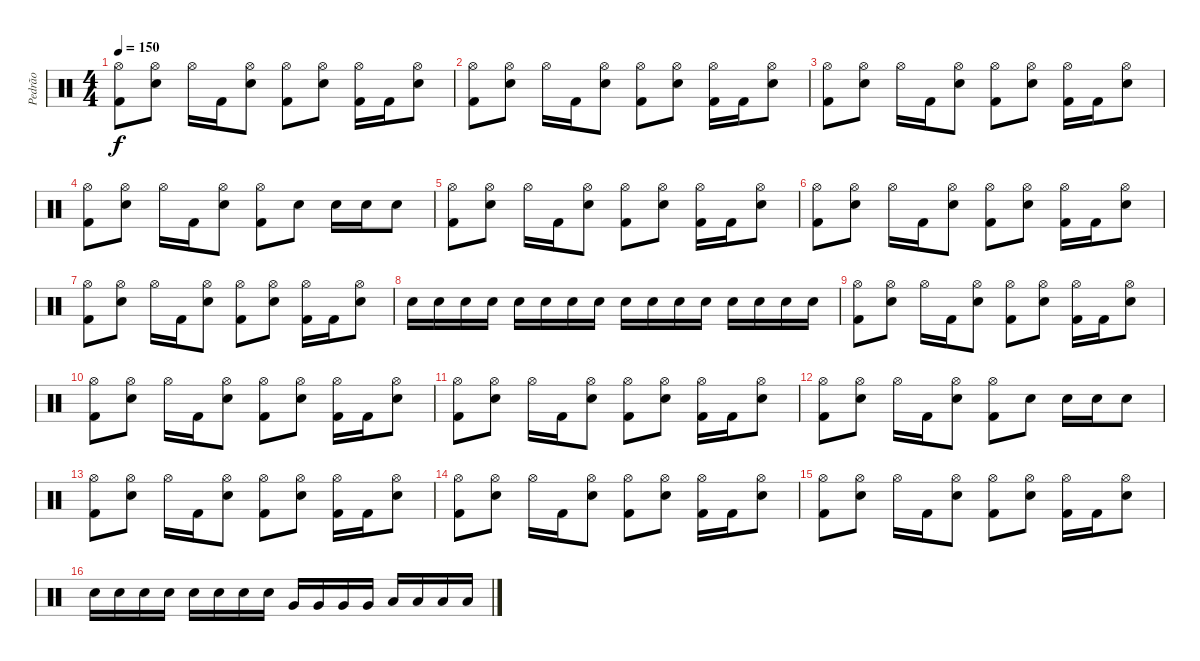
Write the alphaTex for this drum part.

\track ("Pedrão" "Pedrão") {instrument percussion}
\staff {score}
\articulation defaults
\ts (4 4)
\tempo 150
\clef neutral
\ks c
("Hi-Hat (open)" "Kick (hit) 2").8{dy f} ("Hi-Hat (open)" "Snare (hit) 2").8 "Hi-Hat (open)".16 "Kick (hit) 2".16 ("Hi-Hat (open)" "Snare (hit) 2").8 ("Hi-Hat (open)" "Kick (hit) 2").8 ("Hi-Hat (open)" "Snare (hit) 2").8 ("Hi-Hat (open)" "Kick (hit) 2").16 "Kick (hit) 2".16 ("Hi-Hat (open)" "Snare (hit) 2").8 |
("Hi-Hat (open)" "Kick (hit) 2").8 ("Hi-Hat (open)" "Snare (hit) 2").8 "Hi-Hat (open)".16 "Kick (hit) 2".16 ("Hi-Hat (open)" "Snare (hit) 2").8 ("Hi-Hat (open)" "Kick (hit) 2").8 ("Hi-Hat (open)" "Snare (hit) 2").8 ("Hi-Hat (open)" "Kick (hit) 2").16 "Kick (hit) 2".16 ("Hi-Hat (open)" "Snare (hit) 2").8 |
("Hi-Hat (open)" "Kick (hit) 2").8 ("Hi-Hat (open)" "Snare (hit) 2").8 "Hi-Hat (open)".16 "Kick (hit) 2".16 ("Hi-Hat (open)" "Snare (hit) 2").8 ("Hi-Hat (open)" "Kick (hit) 2").8 ("Hi-Hat (open)" "Snare (hit) 2").8 ("Hi-Hat (open)" "Kick (hit) 2").16 "Kick (hit) 2".16 ("Hi-Hat (open)" "Snare (hit) 2").8 |
("Hi-Hat (open)" "Kick (hit) 2").8 ("Hi-Hat (open)" "Snare (hit) 2").8 "Hi-Hat (open)".16 "Kick (hit) 2".16 ("Hi-Hat (open)" "Snare (hit) 2").8 ("Hi-Hat (open)" "Kick (hit) 2").8 "Snare (hit) 2".8 "Snare (hit) 2".16 "Snare (hit) 2".16 "Snare (hit) 2".8 |
("Hi-Hat (open)" "Kick (hit) 2").8 ("Hi-Hat (open)" "Snare (hit) 2").8 "Hi-Hat (open)".16 "Kick (hit) 2".16 ("Hi-Hat (open)" "Snare (hit) 2").8 ("Hi-Hat (open)" "Kick (hit) 2").8 ("Hi-Hat (open)" "Snare (hit) 2").8 ("Hi-Hat (open)" "Kick (hit) 2").16 "Kick (hit) 2".16 ("Hi-Hat (open)" "Snare (hit) 2").8 |
("Hi-Hat (open)" "Kick (hit) 2").8 ("Hi-Hat (open)" "Snare (hit) 2").8 "Hi-Hat (open)".16 "Kick (hit) 2".16 ("Hi-Hat (open)" "Snare (hit) 2").8 ("Hi-Hat (open)" "Kick (hit) 2").8 ("Hi-Hat (open)" "Snare (hit) 2").8 ("Hi-Hat (open)" "Kick (hit) 2").16 "Kick (hit) 2".16 ("Hi-Hat (open)" "Snare (hit) 2").8 |
("Hi-Hat (open)" "Kick (hit) 2").8 ("Hi-Hat (open)" "Snare (hit) 2").8 "Hi-Hat (open)".16 "Kick (hit) 2".16 ("Hi-Hat (open)" "Snare (hit) 2").8 ("Hi-Hat (open)" "Kick (hit) 2").8 ("Hi-Hat (open)" "Snare (hit) 2").8 ("Hi-Hat (open)" "Kick (hit) 2").16 "Kick (hit) 2".16 ("Hi-Hat (open)" "Snare (hit) 2").8 |
"Snare (hit) 2".16 "Snare (hit) 2".16 "Snare (hit) 2".16 "Snare (hit) 2".16 "Snare (hit) 2".16 "Snare (hit) 2".16 "Snare (hit) 2".16 "Snare (hit) 2".16 "Snare (hit) 2".16 "Snare (hit) 2".16 "Snare (hit) 2".16 "Snare (hit) 2".16 "Snare (hit) 2".16 "Snare (hit) 2".16 "Snare (hit) 2".16 "Snare (hit) 2".16 |
("Hi-Hat (open)" "Kick (hit) 2").8 ("Hi-Hat (open)" "Snare (hit) 2").8 "Hi-Hat (open)".16 "Kick (hit) 2".16 ("Hi-Hat (open)" "Snare (hit) 2").8 ("Hi-Hat (open)" "Kick (hit) 2").8 ("Hi-Hat (open)" "Snare (hit) 2").8 ("Hi-Hat (open)" "Kick (hit) 2").16 "Kick (hit) 2".16 ("Hi-Hat (open)" "Snare (hit) 2").8 |
("Hi-Hat (open)" "Kick (hit) 2").8 ("Hi-Hat (open)" "Snare (hit) 2").8 "Hi-Hat (open)".16 "Kick (hit) 2".16 ("Hi-Hat (open)" "Snare (hit) 2").8 ("Hi-Hat (open)" "Kick (hit) 2").8 ("Hi-Hat (open)" "Snare (hit) 2").8 ("Hi-Hat (open)" "Kick (hit) 2").16 "Kick (hit) 2".16 ("Hi-Hat (open)" "Snare (hit) 2").8 |
("Hi-Hat (open)" "Kick (hit) 2").8 ("Hi-Hat (open)" "Snare (hit) 2").8 "Hi-Hat (open)".16 "Kick (hit) 2".16 ("Hi-Hat (open)" "Snare (hit) 2").8 ("Hi-Hat (open)" "Kick (hit) 2").8 ("Hi-Hat (open)" "Snare (hit) 2").8 ("Hi-Hat (open)" "Kick (hit) 2").16 "Kick (hit) 2".16 ("Hi-Hat (open)" "Snare (hit) 2").8 |
("Hi-Hat (open)" "Kick (hit) 2").8 ("Hi-Hat (open)" "Snare (hit) 2").8 "Hi-Hat (open)".16 "Kick (hit) 2".16 ("Hi-Hat (open)" "Snare (hit) 2").8 ("Hi-Hat (open)" "Kick (hit) 2").8 "Snare (hit) 2".8 "Snare (hit) 2".16 "Snare (hit) 2".16 "Snare (hit) 2".8 |
("Hi-Hat (open)" "Kick (hit) 2").8 ("Hi-Hat (open)" "Snare (hit) 2").8 "Hi-Hat (open)".16 "Kick (hit) 2".16 ("Hi-Hat (open)" "Snare (hit) 2").8 ("Hi-Hat (open)" "Kick (hit) 2").8 ("Hi-Hat (open)" "Snare (hit) 2").8 ("Hi-Hat (open)" "Kick (hit) 2").16 "Kick (hit) 2".16 ("Hi-Hat (open)" "Snare (hit) 2").8 |
("Hi-Hat (open)" "Kick (hit) 2").8 ("Hi-Hat (open)" "Snare (hit) 2").8 "Hi-Hat (open)".16 "Kick (hit) 2".16 ("Hi-Hat (open)" "Snare (hit) 2").8 ("Hi-Hat (open)" "Kick (hit) 2").8 ("Hi-Hat (open)" "Snare (hit) 2").8 ("Hi-Hat (open)" "Kick (hit) 2").16 "Kick (hit) 2".16 ("Hi-Hat (open)" "Snare (hit) 2").8 |
("Hi-Hat (open)" "Kick (hit) 2").8 ("Hi-Hat (open)" "Snare (hit) 2").8 "Hi-Hat (open)".16 "Kick (hit) 2".16 ("Hi-Hat (open)" "Snare (hit) 2").8 ("Hi-Hat (open)" "Kick (hit) 2").8 ("Hi-Hat (open)" "Snare (hit) 2").8 ("Hi-Hat (open)" "Kick (hit) 2").16 "Kick (hit) 2".16 ("Hi-Hat (open)" "Snare (hit) 2").8 |
"Snare (hit) 2".16 "Snare (hit) 2".16 "Snare (hit) 2".16 "Snare (hit) 2".16 "Snare (hit) 2".16 "Snare (hit) 2".16 "Snare (hit) 2".16 "Snare (hit) 2".16 "Very Low Tom (hit)".16 "Very Low Tom (hit)".16 "Very Low Tom (hit)".16 "Very Low Tom (hit)".16 "Low Floor Tom (hit)".16 "Low Floor Tom (hit)".16 "Low Floor Tom (hit)".16 "Low Floor Tom (hit)".16
